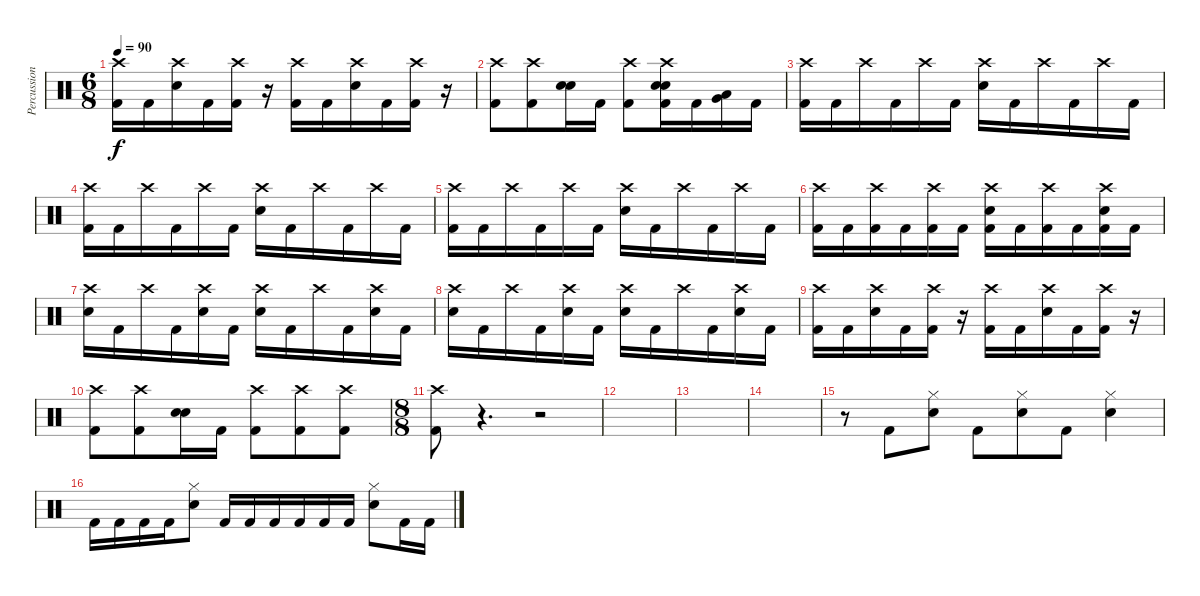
\track ("Percussion" "Percussion") {instrument percussion}
\staff {score}
\articulation defaults
\ts (6 8)
\tempo 90
\clef neutral
\ks c
("Crash high (hit)" "Kick (hit) 2").16{dy f} "Kick (hit) 2".16 ("Crash high (hit)" "Electric Snare (hit)").16 "Kick (hit) 2".16 ("Crash high (hit)" "Kick (hit) 2").16 r.16 ("Crash high (hit)" "Kick (hit) 2").16 "Kick (hit) 2".16 ("Crash high (hit)" "Electric Snare (hit)").16 "Kick (hit) 2".16 ("Crash high (hit)" "Kick (hit) 2").16 r.16 |
("Crash high (hit)" "Kick (hit) 2").8 ("Crash high (hit)" "Kick (hit) 2").8 ("Electric Snare (hit)" "Electric Snare (hit)").16 "Kick (hit) 2".16 ("Crash high (hit)" "Kick (hit) 2").8 ("Crash high (hit)" "Electric Snare (hit)" "Electric Snare (hit)" "Kick (hit) 2").16 "Kick (hit) 2".16 ("Low Floor Tom (hit)" "Very Low Tom (hit)").16 "Kick (hit) 2".16 |
("Crash high (hit)" "Kick (hit) 2").16 "Kick (hit) 2".16 "Crash high (hit)".16 "Kick (hit) 2".16 "Crash high (hit)".16 "Kick (hit) 2".16 ("Crash high (hit)" "Electric Snare (hit)").16 "Kick (hit) 2".16 "Crash high (hit)".16 "Kick (hit) 2".16 "Crash high (hit)".16 "Kick (hit) 2".16 |
("Crash high (hit)" "Kick (hit) 2").16 "Kick (hit) 2".16 "Crash high (hit)".16 "Kick (hit) 2".16 "Crash high (hit)".16 "Kick (hit) 2".16 ("Crash high (hit)" "Electric Snare (hit)").16 "Kick (hit) 2".16 "Crash high (hit)".16 "Kick (hit) 2".16 "Crash high (hit)".16 "Kick (hit) 2".16 |
("Crash high (hit)" "Kick (hit) 2").16 "Kick (hit) 2".16 "Crash high (hit)".16 "Kick (hit) 2".16 "Crash high (hit)".16 "Kick (hit) 2".16 ("Crash high (hit)" "Electric Snare (hit)").16 "Kick (hit) 2".16 "Crash high (hit)".16 "Kick (hit) 2".16 "Crash high (hit)".16 "Kick (hit) 2".16 |
("Crash high (hit)" "Kick (hit) 2").16 "Kick (hit) 2".16 ("Crash high (hit)" "Kick (hit) 2").16 "Kick (hit) 2".16 ("Crash high (hit)" "Kick (hit) 2").16 "Kick (hit) 2".16 ("Crash high (hit)" "Electric Snare (hit)" "Kick (hit) 2").16 "Kick (hit) 2".16 ("Crash high (hit)" "Kick (hit) 2").16 "Kick (hit) 2".16 ("Crash high (hit)" "Electric Snare (hit)" "Kick (hit) 2").16 "Kick (hit) 2".16 |
("Crash high (hit)" "Electric Snare (hit)").16 "Kick (hit) 2".16 "Crash high (hit)".16 "Kick (hit) 2".16 ("Crash high (hit)" "Electric Snare (hit)").16 "Kick (hit) 2".16 ("Crash high (hit)" "Electric Snare (hit)").16 "Kick (hit) 2".16 "Crash high (hit)".16 "Kick (hit) 2".16 ("Crash high (hit)" "Electric Snare (hit)").16 "Kick (hit) 2".16 |
("Crash high (hit)" "Electric Snare (hit)").16 "Kick (hit) 2".16 "Crash high (hit)".16 "Kick (hit) 2".16 ("Crash high (hit)" "Electric Snare (hit)").16 "Kick (hit) 2".16 ("Crash high (hit)" "Electric Snare (hit)").16 "Kick (hit) 2".16 "Crash high (hit)".16 "Kick (hit) 2".16 ("Crash high (hit)" "Electric Snare (hit)").16 "Kick (hit) 2".16 |
("Crash high (hit)" "Kick (hit) 2").16 "Kick (hit) 2".16 ("Crash high (hit)" "Electric Snare (hit)").16 "Kick (hit) 2".16 ("Crash high (hit)" "Kick (hit) 2").16 r.16 ("Crash high (hit)" "Kick (hit) 2").16 "Kick (hit) 2".16 ("Crash high (hit)" "Electric Snare (hit)").16 "Kick (hit) 2".16 ("Crash high (hit)" "Kick (hit) 2").16 r.16 |
("Crash high (hit)" "Kick (hit) 2").8 ("Crash high (hit)" "Kick (hit) 2").8 ("Electric Snare (hit)" "Electric Snare (hit)").16 "Kick (hit) 2".16 ("Crash high (hit)" "Kick (hit) 2").8 ("Crash high (hit)" "Kick (hit) 2").8 ("Crash high (hit)" "Kick (hit) 2").8 |
\ts (8 8)
("Crash high (hit)" "Kick (hit) 2").8 r.4{d} r.2 |
|
|
|
r.8 "Kick (hit) 2".8 ("Hi-Hat (closed)" "Electric Snare (hit)").8 "Kick (hit) 2".8 ("Hi-Hat (closed)" "Electric Snare (hit)").8 "Kick (hit) 2".8 ("Hi-Hat (closed)" "Electric Snare (hit)").4 |
"Kick (hit) 2".16 "Kick (hit) 2".16 "Kick (hit) 2".16 "Kick (hit) 2".16 ("Hi-Hat (closed)" "Electric Snare (hit)").8 "Kick (hit) 2".16 "Kick (hit) 2".16 "Kick (hit) 2".16 "Kick (hit) 2".16 "Kick (hit) 2".16 "Kick (hit) 2".16 ("Hi-Hat (closed)" "Electric Snare (hit)").8 "Kick (hit) 2".16 "Kick (hit) 2".16
